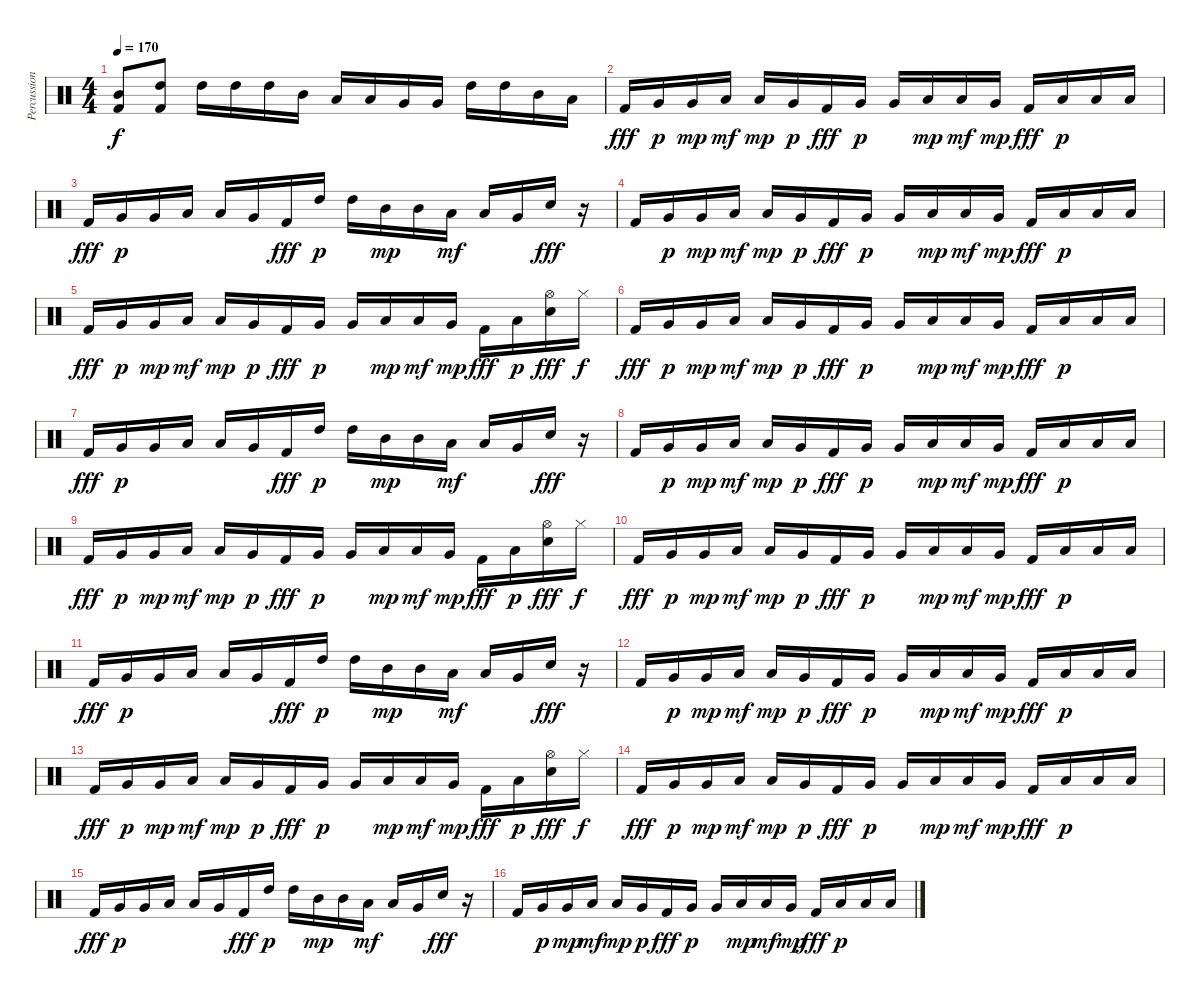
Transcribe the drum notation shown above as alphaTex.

\track ("Percussion" "Percussion") {instrument percussion}
\staff {score}
\articulation defaults
\ts (4 4)
\tempo 170
\clef neutral
\ks c
("Mid Tom (hit)" "Kick (hit) 2").8{dy f} ("High Tom (hit)" "Kick (hit) 2").8 "High Tom (hit)".16 "High Tom (hit)".16 "High Tom (hit)".16 "Mid Tom (hit)".16 "Low Tom (hit)".16 "Low Tom (hit)".16 "Very Low Tom (hit)".16 "Very Low Tom (hit)".16 "High Tom (hit)".16 "High Tom (hit)".16 "Mid Tom (hit)".16 "Low Tom (hit)".16 |
"Kick (hit) 2".16{dy fff} "Very Low Tom (hit)".16{dy p} "Very Low Tom (hit)".16{dy mp} "Low Floor Tom (hit)".16{dy mf} "Low Floor Tom (hit)".16{dy mp} "Very Low Tom (hit)".16{dy p} "Kick (hit) 2".16{dy fff} "Very Low Tom (hit)".16{dy p} "Very Low Tom (hit)".16 "Low Floor Tom (hit)".16{dy mp} "Low Floor Tom (hit)".16{dy mf} "Very Low Tom (hit)".16{dy mp} "Kick (hit) 2".16{dy fff} "Low Tom (hit)".16{dy p} "Low Tom (hit)".16 "Low Tom (hit)".16 |
"Kick (hit) 2".16{dy fff} "Very Low Tom (hit)".16{dy p} "Very Low Tom (hit)".16 "Low Floor Tom (hit)".16 "Low Floor Tom (hit)".16 "Very Low Tom (hit)".16 "Kick (hit) 2".16{dy fff} "High Tom (hit)".16{dy p} "High Tom (hit)".16 "Mid Tom (hit)".16{dy mp} "Mid Tom (hit)".16 "Low Tom (hit)".16{dy mf} "Low Tom (hit)".16 "Very Low Tom (hit)".16 "Electric Snare (hit)".16{dy fff} r.16 |
"Kick (hit) 2".16 "Very Low Tom (hit)".16{dy p} "Very Low Tom (hit)".16{dy mp} "Low Floor Tom (hit)".16{dy mf} "Low Floor Tom (hit)".16{dy mp} "Very Low Tom (hit)".16{dy p} "Kick (hit) 2".16{dy fff} "Very Low Tom (hit)".16{dy p} "Very Low Tom (hit)".16 "Low Floor Tom (hit)".16{dy mp} "Low Floor Tom (hit)".16{dy mf} "Very Low Tom (hit)".16{dy mp} "Kick (hit) 2".16{dy fff} "Low Tom (hit)".16{dy p} "Low Tom (hit)".16 "Low Tom (hit)".16 |
"Kick (hit) 2".16{dy fff} "Very Low Tom (hit)".16{dy p} "Very Low Tom (hit)".16{dy mp} "Low Floor Tom (hit)".16{dy mf} "Low Floor Tom (hit)".16{dy mp} "Very Low Tom (hit)".16{dy p} "Kick (hit) 2".16{dy fff} "Very Low Tom (hit)".16{dy p} "Very Low Tom (hit)".16 "Low Floor Tom (hit)".16{dy mp} "Low Floor Tom (hit)".16{dy mf} "Very Low Tom (hit)".16{dy mp} "Kick (hit) 2".16{dy fff} "Low Tom (hit)".16{dy p} ("Hi-Hat (open)" "Electric Snare (hit)").16{dy fff} "Hi-Hat (closed)".16{dy f} |
"Kick (hit) 2".16{dy fff} "Very Low Tom (hit)".16{dy p} "Very Low Tom (hit)".16{dy mp} "Low Floor Tom (hit)".16{dy mf} "Low Floor Tom (hit)".16{dy mp} "Very Low Tom (hit)".16{dy p} "Kick (hit) 2".16{dy fff} "Very Low Tom (hit)".16{dy p} "Very Low Tom (hit)".16 "Low Floor Tom (hit)".16{dy mp} "Low Floor Tom (hit)".16{dy mf} "Very Low Tom (hit)".16{dy mp} "Kick (hit) 2".16{dy fff} "Low Tom (hit)".16{dy p} "Low Tom (hit)".16 "Low Tom (hit)".16 |
"Kick (hit) 2".16{dy fff} "Very Low Tom (hit)".16{dy p} "Very Low Tom (hit)".16 "Low Floor Tom (hit)".16 "Low Floor Tom (hit)".16 "Very Low Tom (hit)".16 "Kick (hit) 2".16{dy fff} "High Tom (hit)".16{dy p} "High Tom (hit)".16 "Mid Tom (hit)".16{dy mp} "Mid Tom (hit)".16 "Low Tom (hit)".16{dy mf} "Low Tom (hit)".16 "Very Low Tom (hit)".16 "Electric Snare (hit)".16{dy fff} r.16 |
"Kick (hit) 2".16 "Very Low Tom (hit)".16{dy p} "Very Low Tom (hit)".16{dy mp} "Low Floor Tom (hit)".16{dy mf} "Low Floor Tom (hit)".16{dy mp} "Very Low Tom (hit)".16{dy p} "Kick (hit) 2".16{dy fff} "Very Low Tom (hit)".16{dy p} "Very Low Tom (hit)".16 "Low Floor Tom (hit)".16{dy mp} "Low Floor Tom (hit)".16{dy mf} "Very Low Tom (hit)".16{dy mp} "Kick (hit) 2".16{dy fff} "Low Tom (hit)".16{dy p} "Low Tom (hit)".16 "Low Tom (hit)".16 |
"Kick (hit) 2".16{dy fff} "Very Low Tom (hit)".16{dy p} "Very Low Tom (hit)".16{dy mp} "Low Floor Tom (hit)".16{dy mf} "Low Floor Tom (hit)".16{dy mp} "Very Low Tom (hit)".16{dy p} "Kick (hit) 2".16{dy fff} "Very Low Tom (hit)".16{dy p} "Very Low Tom (hit)".16 "Low Floor Tom (hit)".16{dy mp} "Low Floor Tom (hit)".16{dy mf} "Very Low Tom (hit)".16{dy mp} "Kick (hit) 2".16{dy fff} "Low Tom (hit)".16{dy p} ("Hi-Hat (open)" "Electric Snare (hit)").16{dy fff} "Hi-Hat (closed)".16{dy f} |
"Kick (hit) 2".16{dy fff} "Very Low Tom (hit)".16{dy p} "Very Low Tom (hit)".16{dy mp} "Low Floor Tom (hit)".16{dy mf} "Low Floor Tom (hit)".16{dy mp} "Very Low Tom (hit)".16{dy p} "Kick (hit) 2".16{dy fff} "Very Low Tom (hit)".16{dy p} "Very Low Tom (hit)".16 "Low Floor Tom (hit)".16{dy mp} "Low Floor Tom (hit)".16{dy mf} "Very Low Tom (hit)".16{dy mp} "Kick (hit) 2".16{dy fff} "Low Tom (hit)".16{dy p} "Low Tom (hit)".16 "Low Tom (hit)".16 |
"Kick (hit) 2".16{dy fff} "Very Low Tom (hit)".16{dy p} "Very Low Tom (hit)".16 "Low Floor Tom (hit)".16 "Low Floor Tom (hit)".16 "Very Low Tom (hit)".16 "Kick (hit) 2".16{dy fff} "High Tom (hit)".16{dy p} "High Tom (hit)".16 "Mid Tom (hit)".16{dy mp} "Mid Tom (hit)".16 "Low Tom (hit)".16{dy mf} "Low Tom (hit)".16 "Very Low Tom (hit)".16 "Electric Snare (hit)".16{dy fff} r.16 |
"Kick (hit) 2".16 "Very Low Tom (hit)".16{dy p} "Very Low Tom (hit)".16{dy mp} "Low Floor Tom (hit)".16{dy mf} "Low Floor Tom (hit)".16{dy mp} "Very Low Tom (hit)".16{dy p} "Kick (hit) 2".16{dy fff} "Very Low Tom (hit)".16{dy p} "Very Low Tom (hit)".16 "Low Floor Tom (hit)".16{dy mp} "Low Floor Tom (hit)".16{dy mf} "Very Low Tom (hit)".16{dy mp} "Kick (hit) 2".16{dy fff} "Low Tom (hit)".16{dy p} "Low Tom (hit)".16 "Low Tom (hit)".16 |
"Kick (hit) 2".16{dy fff} "Very Low Tom (hit)".16{dy p} "Very Low Tom (hit)".16{dy mp} "Low Floor Tom (hit)".16{dy mf} "Low Floor Tom (hit)".16{dy mp} "Very Low Tom (hit)".16{dy p} "Kick (hit) 2".16{dy fff} "Very Low Tom (hit)".16{dy p} "Very Low Tom (hit)".16 "Low Floor Tom (hit)".16{dy mp} "Low Floor Tom (hit)".16{dy mf} "Very Low Tom (hit)".16{dy mp} "Kick (hit) 2".16{dy fff} "Low Tom (hit)".16{dy p} ("Hi-Hat (open)" "Electric Snare (hit)").16{dy fff} "Hi-Hat (closed)".16{dy f} |
"Kick (hit) 2".16{dy fff} "Very Low Tom (hit)".16{dy p} "Very Low Tom (hit)".16{dy mp} "Low Floor Tom (hit)".16{dy mf} "Low Floor Tom (hit)".16{dy mp} "Very Low Tom (hit)".16{dy p} "Kick (hit) 2".16{dy fff} "Very Low Tom (hit)".16{dy p} "Very Low Tom (hit)".16 "Low Floor Tom (hit)".16{dy mp} "Low Floor Tom (hit)".16{dy mf} "Very Low Tom (hit)".16{dy mp} "Kick (hit) 2".16{dy fff} "Low Tom (hit)".16{dy p} "Low Tom (hit)".16 "Low Tom (hit)".16 |
"Kick (hit) 2".16{dy fff} "Very Low Tom (hit)".16{dy p} "Very Low Tom (hit)".16 "Low Floor Tom (hit)".16 "Low Floor Tom (hit)".16 "Very Low Tom (hit)".16 "Kick (hit) 2".16{dy fff} "High Tom (hit)".16{dy p} "High Tom (hit)".16 "Mid Tom (hit)".16{dy mp} "Mid Tom (hit)".16 "Low Tom (hit)".16{dy mf} "Low Tom (hit)".16 "Very Low Tom (hit)".16 "Electric Snare (hit)".16{dy fff} r.16 |
"Kick (hit) 2".16 "Very Low Tom (hit)".16{dy p} "Very Low Tom (hit)".16{dy mp} "Low Floor Tom (hit)".16{dy mf} "Low Floor Tom (hit)".16{dy mp} "Very Low Tom (hit)".16{dy p} "Kick (hit) 2".16{dy fff} "Very Low Tom (hit)".16{dy p} "Very Low Tom (hit)".16 "Low Floor Tom (hit)".16{dy mp} "Low Floor Tom (hit)".16{dy mf} "Very Low Tom (hit)".16{dy mp} "Kick (hit) 2".16{dy fff} "Low Tom (hit)".16{dy p} "Low Tom (hit)".16 "Low Tom (hit)".16
